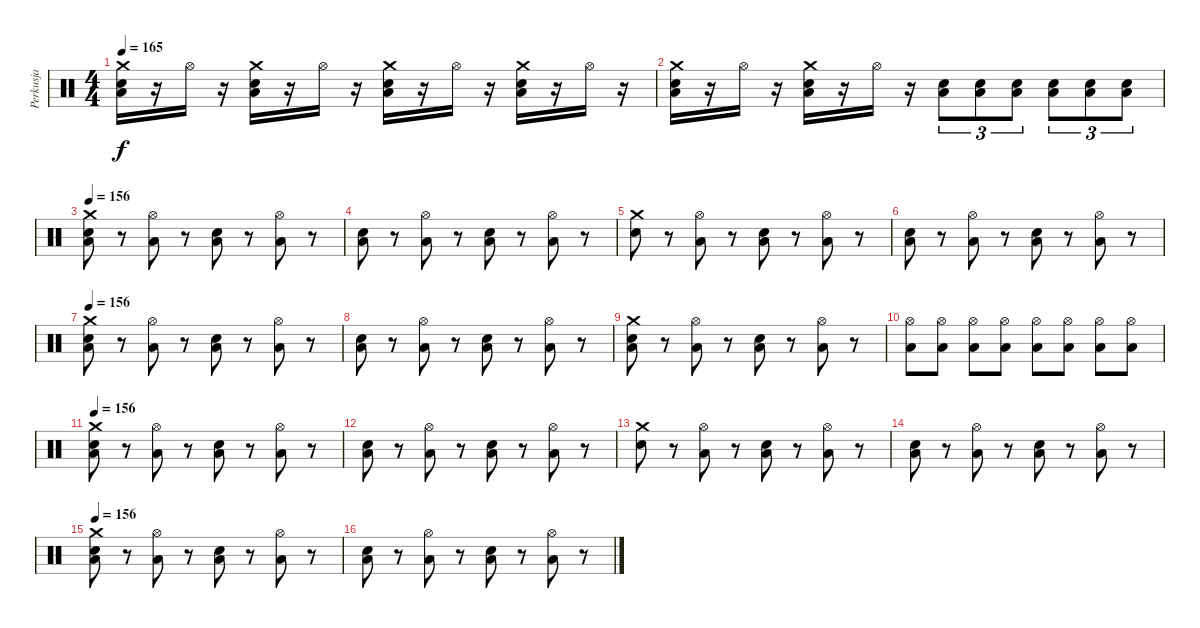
\track ("Perkusja" "Perkusja") {instrument percussion}
\staff {score}
\articulation defaults
\ts (4 4)
\tempo 165
\clef neutral
\ks c
("Snare (hit) 2" "Low Tom (hit)" "Crash medium (hit)").16{dy f} r.16 "Hi-Hat (open)".16 r.16 ("Snare (hit) 2" "Low Tom (hit)" "Crash medium (hit)").16 r.16 "Hi-Hat (open)".16 r.16 ("Snare (hit) 2" "Low Tom (hit)" "Crash medium (hit)").16 r.16 "Hi-Hat (open)".16 r.16 ("Snare (hit) 2" "Low Tom (hit)" "Crash medium (hit)").16 r.16 "Hi-Hat (open)".16 r.16 |
("Snare (hit) 2" "Low Tom (hit)" "Crash medium (hit)").16 r.16 "Hi-Hat (open)".16 r.16 ("Snare (hit) 2" "Low Tom (hit)" "Crash medium (hit)").16 r.16 "Hi-Hat (open)".16 r.16 ("Snare (hit) 2" "Low Tom (hit)").8{tu (3 2)} ("Snare (hit) 2" "Low Tom (hit)").8{tu (3 2)} ("Snare (hit) 2" "Low Tom (hit)").8{tu (3 2)} ("Snare (hit) 2" "Low Tom (hit)").8{tu (3 2)} ("Snare (hit) 2" "Low Tom (hit)").8{tu (3 2)} ("Snare (hit) 2" "Low Tom (hit)").8{tu (3 2)} |
\tempo 156
("Snare (hit) 2" "Low Tom (hit)" "Crash medium (hit)").8 r.8 ("Hi-Hat (open)" "Low Tom (hit)").8 r.8 ("Snare (hit) 2" "Low Tom (hit)").8 r.8 ("Hi-Hat (open)" "Low Tom (hit)").8 r.8 |
("Snare (hit) 2" "Low Tom (hit)").8 r.8 ("Hi-Hat (open)" "Low Tom (hit)").8 r.8 ("Snare (hit) 2" "Low Tom (hit)").8 r.8 ("Hi-Hat (open)" "Low Tom (hit)").8 r.8 |
("Snare (hit) 2" "Crash medium (hit)").8 r.8 ("Hi-Hat (open)" "Low Tom (hit)").8 r.8 ("Snare (hit) 2" "Low Tom (hit)").8 r.8 ("Hi-Hat (open)" "Low Tom (hit)").8 r.8 |
("Snare (hit) 2" "Low Tom (hit)").8 r.8 ("Hi-Hat (open)" "Low Tom (hit)").8 r.8 ("Snare (hit) 2" "Low Tom (hit)").8 r.8 ("Hi-Hat (open)" "Low Tom (hit)").8 r.8 |
\tempo 156
("Snare (hit) 2" "Low Tom (hit)" "Crash medium (hit)").8 r.8 ("Hi-Hat (open)" "Low Tom (hit)").8 r.8 ("Snare (hit) 2" "Low Tom (hit)").8 r.8 ("Hi-Hat (open)" "Low Tom (hit)").8 r.8 |
("Snare (hit) 2" "Low Tom (hit)").8 r.8 ("Hi-Hat (open)" "Low Tom (hit)").8 r.8 ("Snare (hit) 2" "Low Tom (hit)").8 r.8 ("Hi-Hat (open)" "Low Tom (hit)").8 r.8 |
("Snare (hit) 2" "Low Tom (hit)" "Crash medium (hit)").8 r.8 ("Hi-Hat (open)" "Low Tom (hit)").8 r.8 ("Snare (hit) 2" "Low Tom (hit)").8 r.8 ("Hi-Hat (open)" "Low Tom (hit)").8 r.8 |
("Hi-Hat (open)" "Low Tom (hit)").8 ("Hi-Hat (open)" "Low Tom (hit)").8 ("Hi-Hat (open)" "Low Tom (hit)").8 ("Hi-Hat (open)" "Low Tom (hit)").8 ("Hi-Hat (open)" "Low Tom (hit)").8 ("Hi-Hat (open)" "Low Tom (hit)").8 ("Hi-Hat (open)" "Low Tom (hit)").8 ("Hi-Hat (open)" "Low Tom (hit)").8 |
\tempo 156
("Snare (hit) 2" "Low Tom (hit)" "Crash medium (hit)").8 r.8 ("Hi-Hat (open)" "Low Tom (hit)").8 r.8 ("Snare (hit) 2" "Low Tom (hit)").8 r.8 ("Hi-Hat (open)" "Low Tom (hit)").8 r.8 |
("Snare (hit) 2" "Low Tom (hit)").8 r.8 ("Hi-Hat (open)" "Low Tom (hit)").8 r.8 ("Snare (hit) 2" "Low Tom (hit)").8 r.8 ("Hi-Hat (open)" "Low Tom (hit)").8 r.8 |
("Snare (hit) 2" "Crash medium (hit)").8 r.8 ("Hi-Hat (open)" "Low Tom (hit)").8 r.8 ("Snare (hit) 2" "Low Tom (hit)").8 r.8 ("Hi-Hat (open)" "Low Tom (hit)").8 r.8 |
("Snare (hit) 2" "Low Tom (hit)").8 r.8 ("Hi-Hat (open)" "Low Tom (hit)").8 r.8 ("Snare (hit) 2" "Low Tom (hit)").8 r.8 ("Hi-Hat (open)" "Low Tom (hit)").8 r.8 |
\tempo 156
("Snare (hit) 2" "Low Tom (hit)" "Crash medium (hit)").8 r.8 ("Hi-Hat (open)" "Low Tom (hit)").8 r.8 ("Snare (hit) 2" "Low Tom (hit)").8 r.8 ("Hi-Hat (open)" "Low Tom (hit)").8 r.8 |
("Snare (hit) 2" "Low Tom (hit)").8 r.8 ("Hi-Hat (open)" "Low Tom (hit)").8 r.8 ("Snare (hit) 2" "Low Tom (hit)").8 r.8 ("Hi-Hat (open)" "Low Tom (hit)").8 r.8
